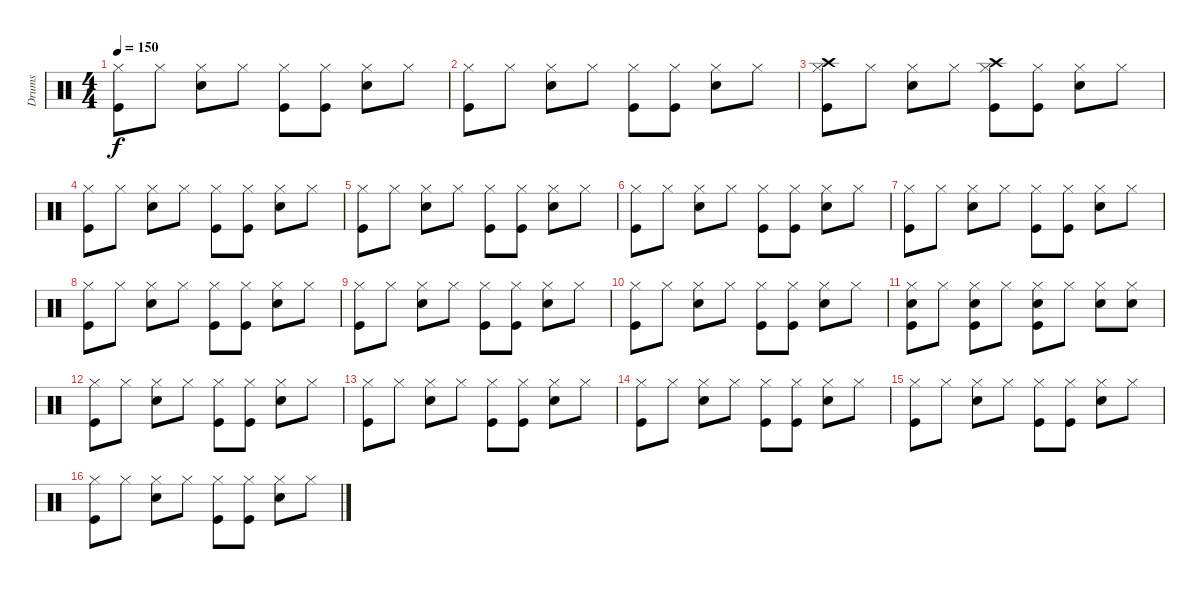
\track ("Drums" "Drums") {instrument percussion}
\staff {score}
\articulation defaults
\ts (4 4)
\tempo 150
\clef neutral
\ks c
("Hi-Hat (closed)" "Kick (hit)").8{dy f} "Hi-Hat (closed)".8 ("Hi-Hat (closed)" "Snare (hit) 2").8 "Hi-Hat (closed)".8 ("Hi-Hat (closed)" "Kick (hit)").8 ("Hi-Hat (closed)" "Kick (hit)").8 ("Hi-Hat (closed)" "Snare (hit) 2").8 "Hi-Hat (closed)".8 |
("Hi-Hat (closed)" "Kick (hit)").8 "Hi-Hat (closed)".8 ("Hi-Hat (closed)" "Snare (hit) 2").8 "Hi-Hat (closed)".8 ("Hi-Hat (closed)" "Kick (hit)").8 ("Hi-Hat (closed)" "Kick (hit)").8 ("Hi-Hat (closed)" "Snare (hit) 2").8 "Hi-Hat (closed)".8 |
("Hi-Hat (closed)" "Kick (hit)" "Crash high (hit)").8 "Hi-Hat (closed)".8 ("Hi-Hat (closed)" "Snare (hit) 2").8 "Hi-Hat (closed)".8 ("Hi-Hat (closed)" "Kick (hit)" "Crash high (hit)").8 ("Hi-Hat (closed)" "Kick (hit)").8 ("Hi-Hat (closed)" "Snare (hit) 2").8 "Hi-Hat (closed)".8 |
("Hi-Hat (closed)" "Kick (hit)").8 "Hi-Hat (closed)".8 ("Hi-Hat (closed)" "Snare (hit) 2").8 "Hi-Hat (closed)".8 ("Hi-Hat (closed)" "Kick (hit)").8 ("Hi-Hat (closed)" "Kick (hit)").8 ("Hi-Hat (closed)" "Snare (hit) 2").8 "Hi-Hat (closed)".8 |
("Hi-Hat (closed)" "Kick (hit)").8 "Hi-Hat (closed)".8 ("Hi-Hat (closed)" "Snare (hit) 2").8 "Hi-Hat (closed)".8 ("Hi-Hat (closed)" "Kick (hit)").8 ("Hi-Hat (closed)" "Kick (hit)").8 ("Hi-Hat (closed)" "Snare (hit) 2").8 "Hi-Hat (closed)".8 |
("Hi-Hat (closed)" "Kick (hit)").8 "Hi-Hat (closed)".8 ("Hi-Hat (closed)" "Snare (hit) 2").8 "Hi-Hat (closed)".8 ("Hi-Hat (closed)" "Kick (hit)").8 ("Hi-Hat (closed)" "Kick (hit)").8 ("Hi-Hat (closed)" "Snare (hit) 2").8 "Hi-Hat (closed)".8 |
("Hi-Hat (closed)" "Kick (hit)").8 "Hi-Hat (closed)".8 ("Hi-Hat (closed)" "Snare (hit) 2").8 "Hi-Hat (closed)".8 ("Hi-Hat (closed)" "Kick (hit)").8 ("Hi-Hat (closed)" "Kick (hit)").8 ("Hi-Hat (closed)" "Snare (hit) 2").8 "Hi-Hat (closed)".8 |
("Hi-Hat (closed)" "Kick (hit)").8 "Hi-Hat (closed)".8 ("Hi-Hat (closed)" "Snare (hit) 2").8 "Hi-Hat (closed)".8 ("Hi-Hat (closed)" "Kick (hit)").8 ("Hi-Hat (closed)" "Kick (hit)").8 ("Hi-Hat (closed)" "Snare (hit) 2").8 "Hi-Hat (closed)".8 |
("Hi-Hat (closed)" "Kick (hit)").8 "Hi-Hat (closed)".8 ("Hi-Hat (closed)" "Snare (hit) 2").8 "Hi-Hat (closed)".8 ("Hi-Hat (closed)" "Kick (hit)").8 ("Hi-Hat (closed)" "Kick (hit)").8 ("Hi-Hat (closed)" "Snare (hit) 2").8 "Hi-Hat (closed)".8 |
("Hi-Hat (closed)" "Kick (hit)").8 "Hi-Hat (closed)".8 ("Hi-Hat (closed)" "Snare (hit) 2").8 "Hi-Hat (closed)".8 ("Hi-Hat (closed)" "Kick (hit)").8 ("Hi-Hat (closed)" "Kick (hit)").8 ("Hi-Hat (closed)" "Snare (hit) 2").8 "Hi-Hat (closed)".8 |
("Hi-Hat (closed)" "Kick (hit)" "Snare (hit) 2").8 "Hi-Hat (closed)".8 ("Hi-Hat (closed)" "Snare (hit) 2" "Kick (hit)").8 "Hi-Hat (closed)".8 ("Hi-Hat (closed)" "Kick (hit)" "Snare (hit) 2").8 "Hi-Hat (closed)".8 ("Hi-Hat (closed)" "Snare (hit) 2").8 ("Hi-Hat (closed)" "Snare (hit) 2").8 |
("Hi-Hat (closed)" "Kick (hit)").8 "Hi-Hat (closed)".8 ("Hi-Hat (closed)" "Snare (hit) 2").8 "Hi-Hat (closed)".8 ("Hi-Hat (closed)" "Kick (hit)").8 ("Hi-Hat (closed)" "Kick (hit)").8 ("Hi-Hat (closed)" "Snare (hit) 2").8 "Hi-Hat (closed)".8 |
("Hi-Hat (closed)" "Kick (hit)").8 "Hi-Hat (closed)".8 ("Hi-Hat (closed)" "Snare (hit) 2").8 "Hi-Hat (closed)".8 ("Hi-Hat (closed)" "Kick (hit)").8 ("Hi-Hat (closed)" "Kick (hit)").8 ("Hi-Hat (closed)" "Snare (hit) 2").8 "Hi-Hat (closed)".8 |
("Hi-Hat (closed)" "Kick (hit)").8 "Hi-Hat (closed)".8 ("Hi-Hat (closed)" "Snare (hit) 2").8 "Hi-Hat (closed)".8 ("Hi-Hat (closed)" "Kick (hit)").8 ("Hi-Hat (closed)" "Kick (hit)").8 ("Hi-Hat (closed)" "Snare (hit) 2").8 "Hi-Hat (closed)".8 |
("Hi-Hat (closed)" "Kick (hit)").8 "Hi-Hat (closed)".8 ("Hi-Hat (closed)" "Snare (hit) 2").8 "Hi-Hat (closed)".8 ("Hi-Hat (closed)" "Kick (hit)").8 ("Hi-Hat (closed)" "Kick (hit)").8 ("Hi-Hat (closed)" "Snare (hit) 2").8 "Hi-Hat (closed)".8 |
("Hi-Hat (closed)" "Kick (hit)").8 "Hi-Hat (closed)".8 ("Hi-Hat (closed)" "Snare (hit) 2").8 "Hi-Hat (closed)".8 ("Hi-Hat (closed)" "Kick (hit)").8 ("Hi-Hat (closed)" "Kick (hit)").8 ("Hi-Hat (closed)" "Snare (hit) 2").8 "Hi-Hat (closed)".8
